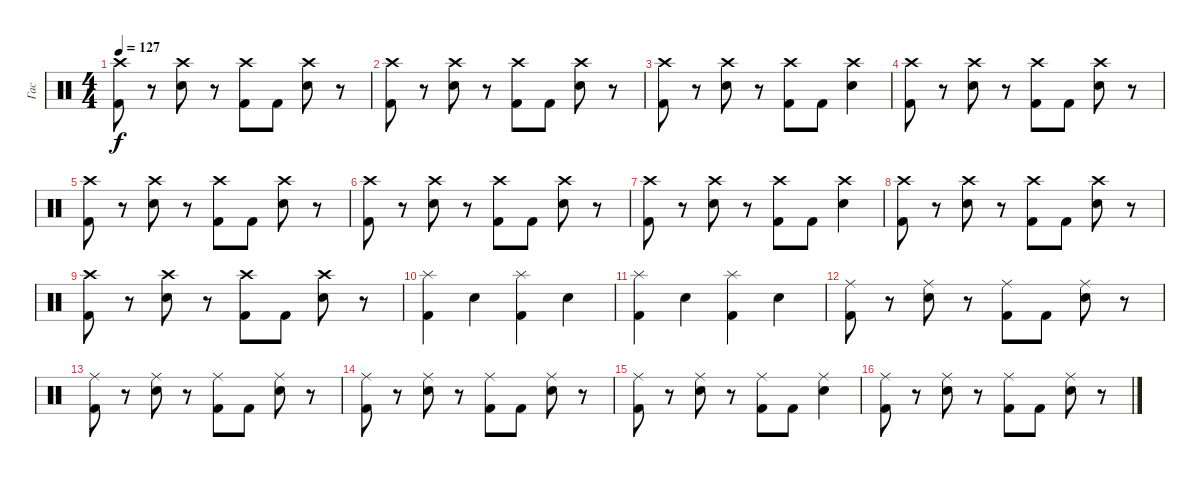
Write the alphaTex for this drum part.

\track ("Гас" "Гас") {instrument percussion}
\staff {score}
\articulation defaults
\ts (4 4)
\tempo 127
\clef neutral
\ks c
("Crash high (hit)" "Kick (hit) 2").8{dy f} r.8 ("Crash high (hit)" "Electric Snare (hit)").8 r.8 ("Crash high (hit)" "Kick (hit) 2").8 "Kick (hit) 2".8 ("Crash high (hit)" "Electric Snare (hit)").8 r.8 |
("Crash high (hit)" "Kick (hit) 2").8 r.8 ("Crash high (hit)" "Electric Snare (hit)").8 r.8 ("Crash high (hit)" "Kick (hit) 2").8 "Kick (hit) 2".8 ("Crash high (hit)" "Electric Snare (hit)").8 r.8 |
("Crash high (hit)" "Kick (hit) 2").8 r.8 ("Crash high (hit)" "Electric Snare (hit)").8 r.8 ("Crash high (hit)" "Kick (hit) 2").8 "Kick (hit) 2".8 ("Crash high (hit)" "Electric Snare (hit)").4 |
("Crash high (hit)" "Kick (hit) 2").8 r.8 ("Crash high (hit)" "Electric Snare (hit)").8 r.8 ("Crash high (hit)" "Kick (hit) 2").8 "Kick (hit) 2".8 ("Crash high (hit)" "Electric Snare (hit)").8 r.8 |
("Crash high (hit)" "Kick (hit) 2").8 r.8 ("Crash high (hit)" "Electric Snare (hit)").8 r.8 ("Crash high (hit)" "Kick (hit) 2").8 "Kick (hit) 2".8 ("Crash high (hit)" "Electric Snare (hit)").8 r.8 |
("Crash high (hit)" "Kick (hit) 2").8 r.8 ("Crash high (hit)" "Electric Snare (hit)").8 r.8 ("Crash high (hit)" "Kick (hit) 2").8 "Kick (hit) 2".8 ("Crash high (hit)" "Electric Snare (hit)").8 r.8 |
("Crash high (hit)" "Kick (hit) 2").8 r.8 ("Crash high (hit)" "Electric Snare (hit)").8 r.8 ("Crash high (hit)" "Kick (hit) 2").8 "Kick (hit) 2".8 ("Crash high (hit)" "Electric Snare (hit)").4 |
("Crash high (hit)" "Kick (hit) 2").8 r.8 ("Crash high (hit)" "Electric Snare (hit)").8 r.8 ("Crash high (hit)" "Kick (hit) 2").8 "Kick (hit) 2".8 ("Crash high (hit)" "Electric Snare (hit)").8 r.8 |
("Crash high (hit)" "Kick (hit) 2").8 r.8 ("Crash high (hit)" "Electric Snare (hit)").8 r.8 ("Crash high (hit)" "Kick (hit) 2").8 "Kick (hit) 2".8 ("Crash high (hit)" "Electric Snare (hit)").8 r.8 |
("Splash (hit)" "Kick (hit) 2").4 "Electric Snare (hit)".4 ("Splash (hit)" "Kick (hit) 2").4 "Electric Snare (hit)".4 |
("Splash (hit)" "Kick (hit) 2").4 "Electric Snare (hit)".4 ("Splash (hit)" "Kick (hit) 2").4 "Electric Snare (hit)".4 |
("Ride (middle)" "Kick (hit) 2").8 r.8 ("Ride (middle)" "Electric Snare (hit)").8 r.8 ("Ride (middle)" "Kick (hit) 2").8 "Kick (hit) 2".8 ("Ride (middle)" "Electric Snare (hit)").8 r.8 |
("Ride (middle)" "Kick (hit) 2").8 r.8 ("Ride (middle)" "Electric Snare (hit)").8 r.8 ("Ride (middle)" "Kick (hit) 2").8 "Kick (hit) 2".8 ("Ride (middle)" "Electric Snare (hit)").8 r.8 |
("Ride (middle)" "Kick (hit) 2").8 r.8 ("Ride (middle)" "Electric Snare (hit)").8 r.8 ("Ride (middle)" "Kick (hit) 2").8 "Kick (hit) 2".8 ("Ride (middle)" "Electric Snare (hit)").8 r.8 |
("Ride (middle)" "Kick (hit) 2").8 r.8 ("Ride (middle)" "Electric Snare (hit)").8 r.8 ("Ride (middle)" "Kick (hit) 2").8 "Kick (hit) 2".8 ("Ride (middle)" "Electric Snare (hit)").4 |
("Ride (middle)" "Kick (hit) 2").8 r.8 ("Ride (middle)" "Electric Snare (hit)").8 r.8 ("Ride (middle)" "Kick (hit) 2").8 "Kick (hit) 2".8 ("Ride (middle)" "Electric Snare (hit)").8 r.8
